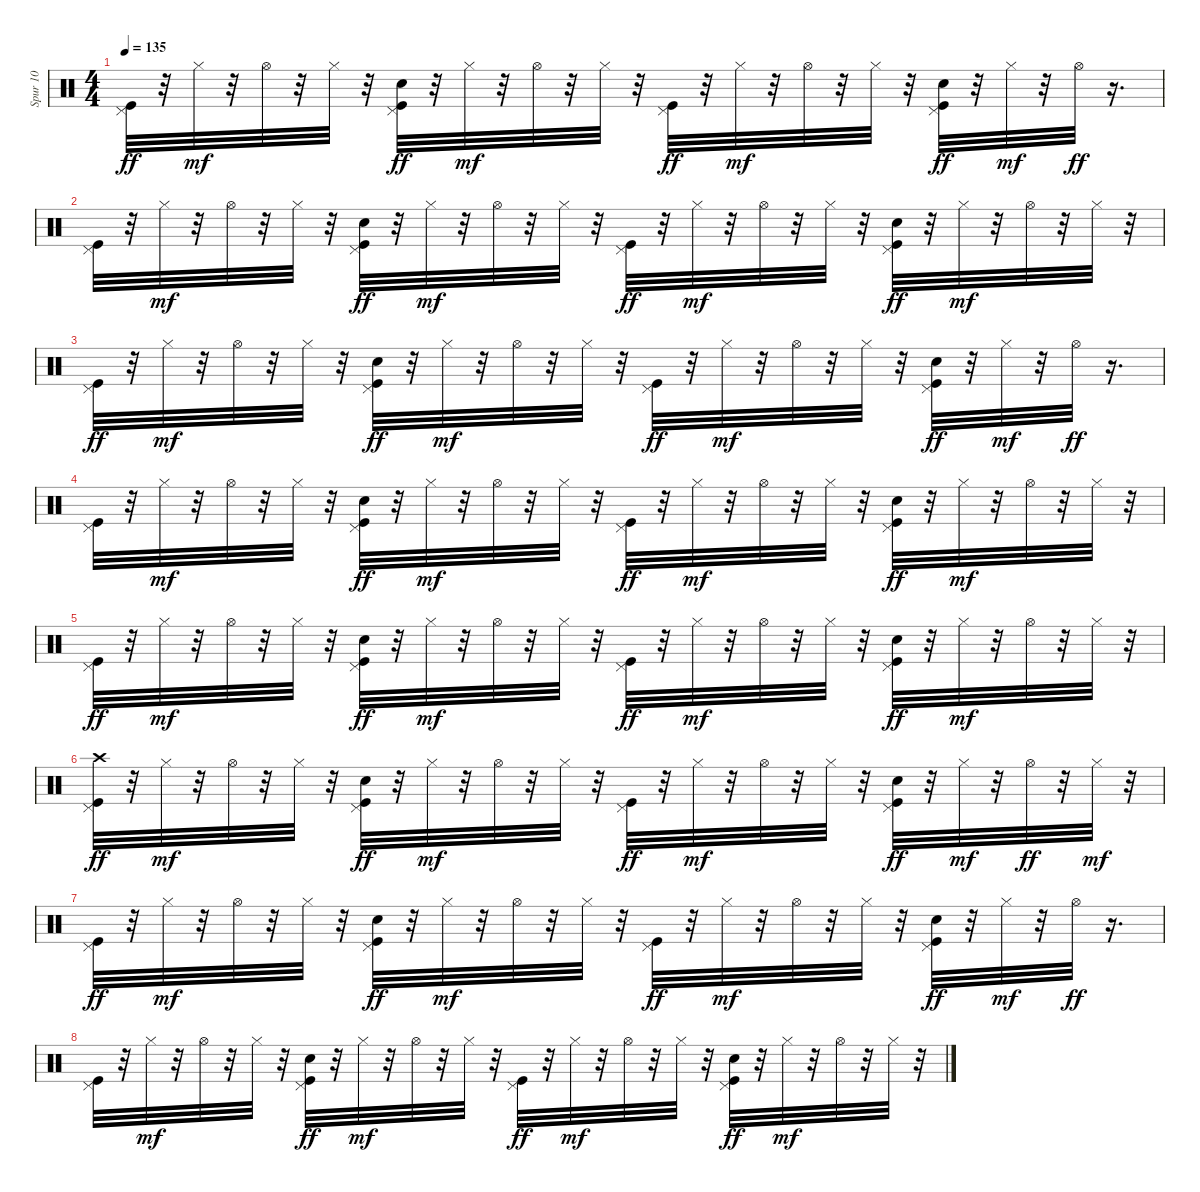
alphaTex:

\track ("Spur 10" "Spur 10") {instrument percussion}
\staff {score}
\articulation defaults
\ts (4 4)
\tempo 135
\clef neutral
\ks c
("Kick (hit)" "Pedal Hi-Hat (hit)").32{dy ff} r.32 "Hi-Hat (closed)".32{dy mf} r.32 "Hi-Hat (open)".32 r.32 "Hi-Hat (closed)".32 r.32 ("Kick (hit)" "Hand Clap (hit)" "Pedal Hi-Hat (hit)").32{dy ff} r.32 "Hi-Hat (closed)".32{dy mf} r.32 "Hi-Hat (open)".32 r.32 "Hi-Hat (closed)".32 r.32 ("Kick (hit)" "Pedal Hi-Hat (hit)").32{dy ff} r.32 "Hi-Hat (closed)".32{dy mf} r.32 "Hi-Hat (open)".32 r.32 "Hi-Hat (closed)".32 r.32 ("Kick (hit)" "Hand Clap (hit)" "Pedal Hi-Hat (hit)").32{dy ff} r.32 "Hi-Hat (closed)".32{dy mf} r.32 "Hi-Hat (open)".32{dy ff} r.16{d} |
("Kick (hit)" "Pedal Hi-Hat (hit)").32 r.32 "Hi-Hat (closed)".32{dy mf} r.32 "Hi-Hat (open)".32 r.32 "Hi-Hat (closed)".32 r.32 ("Kick (hit)" "Hand Clap (hit)" "Pedal Hi-Hat (hit)").32{dy ff} r.32 "Hi-Hat (closed)".32{dy mf} r.32 "Hi-Hat (open)".32 r.32 "Hi-Hat (closed)".32 r.32 ("Kick (hit)" "Pedal Hi-Hat (hit)").32{dy ff} r.32 "Hi-Hat (closed)".32{dy mf} r.32 "Hi-Hat (open)".32 r.32 "Hi-Hat (closed)".32 r.32 ("Kick (hit)" "Hand Clap (hit)" "Pedal Hi-Hat (hit)").32{dy ff} r.32 "Hi-Hat (closed)".32{dy mf} r.32 "Hi-Hat (open)".32 r.32 "Hi-Hat (closed)".32 r.32 |
("Kick (hit)" "Pedal Hi-Hat (hit)").32{dy ff} r.32 "Hi-Hat (closed)".32{dy mf} r.32 "Hi-Hat (open)".32 r.32 "Hi-Hat (closed)".32 r.32 ("Kick (hit)" "Hand Clap (hit)" "Pedal Hi-Hat (hit)").32{dy ff} r.32 "Hi-Hat (closed)".32{dy mf} r.32 "Hi-Hat (open)".32 r.32 "Hi-Hat (closed)".32 r.32 ("Kick (hit)" "Pedal Hi-Hat (hit)").32{dy ff} r.32 "Hi-Hat (closed)".32{dy mf} r.32 "Hi-Hat (open)".32 r.32 "Hi-Hat (closed)".32 r.32 ("Kick (hit)" "Hand Clap (hit)" "Pedal Hi-Hat (hit)").32{dy ff} r.32 "Hi-Hat (closed)".32{dy mf} r.32 "Hi-Hat (open)".32{dy ff} r.16{d} |
("Kick (hit)" "Pedal Hi-Hat (hit)").32 r.32 "Hi-Hat (closed)".32{dy mf} r.32 "Hi-Hat (open)".32 r.32 "Hi-Hat (closed)".32 r.32 ("Kick (hit)" "Hand Clap (hit)" "Pedal Hi-Hat (hit)").32{dy ff} r.32 "Hi-Hat (closed)".32{dy mf} r.32 "Hi-Hat (open)".32 r.32 "Hi-Hat (closed)".32 r.32 ("Kick (hit)" "Pedal Hi-Hat (hit)").32{dy ff} r.32 "Hi-Hat (closed)".32{dy mf} r.32 "Hi-Hat (open)".32 r.32 "Hi-Hat (closed)".32 r.32 ("Kick (hit)" "Hand Clap (hit)" "Pedal Hi-Hat (hit)").32{dy ff} r.32 "Hi-Hat (closed)".32{dy mf} r.32 "Hi-Hat (open)".32 r.32 "Hi-Hat (closed)".32 r.32 |
("Kick (hit)" "Pedal Hi-Hat (hit)").32{dy ff} r.32 "Hi-Hat (closed)".32{dy mf} r.32 "Hi-Hat (open)".32 r.32 "Hi-Hat (closed)".32 r.32 ("Kick (hit)" "Hand Clap (hit)" "Pedal Hi-Hat (hit)").32{dy ff} r.32 "Hi-Hat (closed)".32{dy mf} r.32 "Hi-Hat (open)".32 r.32 "Hi-Hat (closed)".32 r.32 ("Kick (hit)" "Pedal Hi-Hat (hit)").32{dy ff} r.32 "Hi-Hat (closed)".32{dy mf} r.32 "Hi-Hat (open)".32 r.32 "Hi-Hat (closed)".32 r.32 ("Kick (hit)" "Hand Clap (hit)" "Pedal Hi-Hat (hit)").32{dy ff} r.32 "Hi-Hat (closed)".32{dy mf} r.32 "Hi-Hat (open)".32 r.32 "Hi-Hat (closed)".32 r.32 |
("Crash high (hit)" "Kick (hit)" "Pedal Hi-Hat (hit)").32{dy ff} r.32 "Hi-Hat (closed)".32{dy mf} r.32 "Hi-Hat (open)".32 r.32 "Hi-Hat (closed)".32 r.32 ("Kick (hit)" "Hand Clap (hit)" "Pedal Hi-Hat (hit)").32{dy ff} r.32 "Hi-Hat (closed)".32{dy mf} r.32 "Hi-Hat (open)".32 r.32 "Hi-Hat (closed)".32 r.32 ("Kick (hit)" "Pedal Hi-Hat (hit)").32{dy ff} r.32 "Hi-Hat (closed)".32{dy mf} r.32 "Hi-Hat (open)".32 r.32 "Hi-Hat (closed)".32 r.32 ("Kick (hit)" "Hand Clap (hit)" "Pedal Hi-Hat (hit)").32{dy ff} r.32 "Hi-Hat (closed)".32{dy mf} r.32 "Hi-Hat (open)".32{dy ff} r.32 "Hi-Hat (closed)".32{dy mf} r.32 |
("Kick (hit)" "Pedal Hi-Hat (hit)").32{dy ff} r.32 "Hi-Hat (closed)".32{dy mf} r.32 "Hi-Hat (open)".32 r.32 "Hi-Hat (closed)".32 r.32 ("Kick (hit)" "Hand Clap (hit)" "Pedal Hi-Hat (hit)").32{dy ff} r.32 "Hi-Hat (closed)".32{dy mf} r.32 "Hi-Hat (open)".32 r.32 "Hi-Hat (closed)".32 r.32 ("Kick (hit)" "Pedal Hi-Hat (hit)").32{dy ff} r.32 "Hi-Hat (closed)".32{dy mf} r.32 "Hi-Hat (open)".32 r.32 "Hi-Hat (closed)".32 r.32 ("Kick (hit)" "Hand Clap (hit)" "Pedal Hi-Hat (hit)").32{dy ff} r.32 "Hi-Hat (closed)".32{dy mf} r.32 "Hi-Hat (open)".32{dy ff} r.16{d} |
("Kick (hit)" "Pedal Hi-Hat (hit)").32 r.32 "Hi-Hat (closed)".32{dy mf} r.32 "Hi-Hat (open)".32 r.32 "Hi-Hat (closed)".32 r.32 ("Kick (hit)" "Hand Clap (hit)" "Pedal Hi-Hat (hit)").32{dy ff} r.32 "Hi-Hat (closed)".32{dy mf} r.32 "Hi-Hat (open)".32 r.32 "Hi-Hat (closed)".32 r.32 ("Kick (hit)" "Pedal Hi-Hat (hit)").32{dy ff} r.32 "Hi-Hat (closed)".32{dy mf} r.32 "Hi-Hat (open)".32 r.32 "Hi-Hat (closed)".32 r.32 ("Kick (hit)" "Hand Clap (hit)" "Pedal Hi-Hat (hit)").32{dy ff} r.32 "Hi-Hat (closed)".32{dy mf} r.32 "Hi-Hat (open)".32 r.32 "Hi-Hat (closed)".32 r.32
